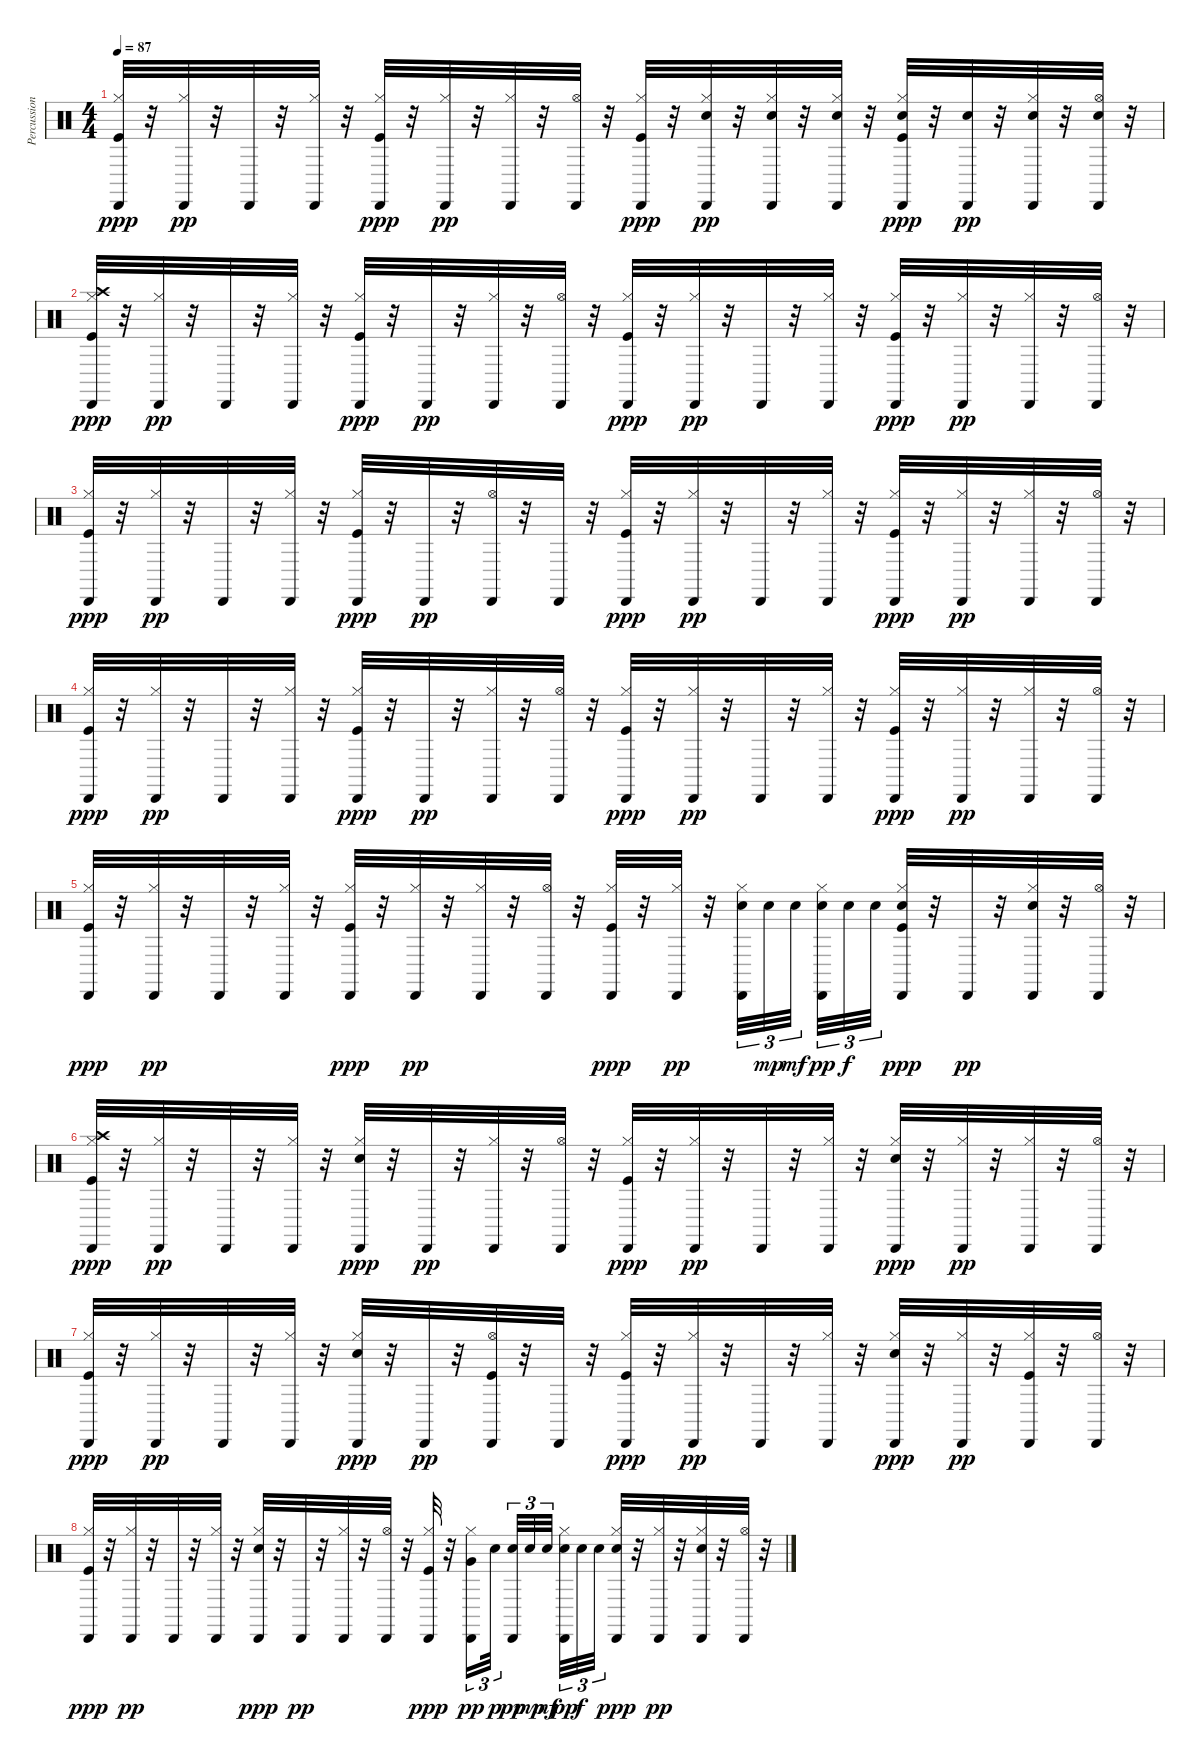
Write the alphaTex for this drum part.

\track ("Percussion" "Percussion") {instrument percussion}
\staff {score}
\articulation defaults
\ts (4 4)
\tempo 87
\clef neutral
\ks c
("Kick (hit)" "Hi-Hat (closed)" "Cabasa (hit)").32{dy ppp} r.32 ("Hi-Hat (closed)" "Cabasa (hit)").32{dy pp} r.32 "Cabasa (hit)".32 r.32 ("Hi-Hat (closed)" "Cabasa (hit)").32 r.32 ("Kick (hit)" "Hi-Hat (closed)" "Cabasa (hit)").32{dy ppp} r.32 ("Hi-Hat (closed)" "Cabasa (hit)").32{dy pp} r.32 ("Hi-Hat (closed)" "Cabasa (hit)").32 r.32 ("Hi-Hat (open)" "Cabasa (hit)").32 r.32 ("Kick (hit)" "Hi-Hat (closed)" "Cabasa (hit)").32{dy ppp} r.32 ("Snare (hit) 2" "Hi-Hat (closed)" "Cabasa (hit)").32{dy pp} r.32 ("Snare (hit) 2" "Hi-Hat (closed)" "Cabasa (hit)").32 r.32 ("Snare (hit) 2" "Hi-Hat (closed)" "Cabasa (hit)").32 r.32 ("Kick (hit)" "Snare (hit) 2" "Hi-Hat (closed)" "Cabasa (hit)").32{dy ppp} r.32 ("Snare (hit) 2" "Cabasa (hit)").32{dy pp} r.32 ("Snare (hit) 2" "Hi-Hat (closed)" "Cabasa (hit)").32 r.32 ("Snare (hit) 2" "Hi-Hat (open)" "Cabasa (hit)").32 r.32 |
("Kick (hit)" "Hi-Hat (closed)" "Crash high (hit)" "Cabasa (hit)").32{dy ppp} r.32 ("Hi-Hat (closed)" "Cabasa (hit)").32{dy pp} r.32 "Cabasa (hit)".32 r.32 ("Hi-Hat (closed)" "Cabasa (hit)").32 r.32 ("Kick (hit)" "Hi-Hat (closed)" "Cabasa (hit)").32{dy ppp} r.32 "Cabasa (hit)".32{dy pp} r.32 ("Hi-Hat (closed)" "Cabasa (hit)").32 r.32 ("Hi-Hat (open)" "Cabasa (hit)").32 r.32 ("Kick (hit)" "Hi-Hat (closed)" "Cabasa (hit)").32{dy ppp} r.32 ("Hi-Hat (closed)" "Cabasa (hit)").32{dy pp} r.32 "Cabasa (hit)".32 r.32 ("Hi-Hat (closed)" "Cabasa (hit)").32 r.32 ("Kick (hit)" "Hi-Hat (closed)" "Cabasa (hit)").32{dy ppp} r.32 ("Hi-Hat (closed)" "Cabasa (hit)").32{dy pp} r.32 ("Hi-Hat (closed)" "Cabasa (hit)").32 r.32 ("Hi-Hat (open)" "Cabasa (hit)").32 r.32 |
("Kick (hit)" "Hi-Hat (closed)" "Cabasa (hit)").32{dy ppp} r.32 ("Hi-Hat (closed)" "Cabasa (hit)").32{dy pp} r.32 "Cabasa (hit)".32 r.32 ("Hi-Hat (closed)" "Cabasa (hit)").32 r.32 ("Kick (hit)" "Hi-Hat (closed)" "Cabasa (hit)").32{dy ppp} r.32 "Cabasa (hit)".32{dy pp} r.32 ("Hi-Hat (open)" "Cabasa (hit)").32 r.32 "Cabasa (hit)".32 r.32 ("Kick (hit)" "Hi-Hat (closed)" "Cabasa (hit)").32{dy ppp} r.32 ("Hi-Hat (closed)" "Cabasa (hit)").32{dy pp} r.32 "Cabasa (hit)".32 r.32 ("Hi-Hat (closed)" "Cabasa (hit)").32 r.32 ("Kick (hit)" "Hi-Hat (closed)" "Cabasa (hit)").32{dy ppp} r.32 ("Hi-Hat (closed)" "Cabasa (hit)").32{dy pp} r.32 ("Hi-Hat (closed)" "Cabasa (hit)").32 r.32 ("Hi-Hat (open)" "Cabasa (hit)").32 r.32 |
("Kick (hit)" "Hi-Hat (closed)" "Cabasa (hit)").32{dy ppp} r.32 ("Hi-Hat (closed)" "Cabasa (hit)").32{dy pp} r.32 "Cabasa (hit)".32 r.32 ("Hi-Hat (closed)" "Cabasa (hit)").32 r.32 ("Kick (hit)" "Hi-Hat (closed)" "Cabasa (hit)").32{dy ppp} r.32 "Cabasa (hit)".32{dy pp} r.32 ("Hi-Hat (closed)" "Cabasa (hit)").32 r.32 ("Hi-Hat (open)" "Cabasa (hit)").32 r.32 ("Kick (hit)" "Hi-Hat (closed)" "Cabasa (hit)").32{dy ppp} r.32 ("Hi-Hat (closed)" "Cabasa (hit)").32{dy pp} r.32 "Cabasa (hit)".32 r.32 ("Hi-Hat (closed)" "Cabasa (hit)").32 r.32 ("Kick (hit)" "Hi-Hat (closed)" "Cabasa (hit)").32{dy ppp} r.32 ("Hi-Hat (closed)" "Cabasa (hit)").32{dy pp} r.32 ("Hi-Hat (closed)" "Cabasa (hit)").32 r.32 ("Hi-Hat (open)" "Cabasa (hit)").32 r.32 |
("Kick (hit)" "Hi-Hat (closed)" "Cabasa (hit)").32{dy ppp} r.32 ("Hi-Hat (closed)" "Cabasa (hit)").32{dy pp} r.32 "Cabasa (hit)".32 r.32 ("Hi-Hat (closed)" "Cabasa (hit)").32 r.32 ("Kick (hit)" "Hi-Hat (closed)" "Cabasa (hit)").32{dy ppp} r.32 ("Hi-Hat (closed)" "Cabasa (hit)").32{dy pp} r.32 ("Hi-Hat (closed)" "Cabasa (hit)").32 r.32 ("Hi-Hat (open)" "Cabasa (hit)").32 r.32 ("Kick (hit)" "Hi-Hat (closed)" "Cabasa (hit)").32{dy ppp} r.32 ("Hi-Hat (closed)" "Cabasa (hit)").32{dy pp} r.32 ("Snare (hit) 2" "Hi-Hat (closed)" "Cabasa (hit)").32{tu (3 2)} "Snare (hit) 2".32{tu (3 2) dy mp} "Snare (hit) 2".32{tu (3 2) dy mf beam splitsecondary} ("Snare (hit) 2" "Hi-Hat (closed)" "Cabasa (hit)").32{tu (3 2) dy pp} "Snare (hit) 2".32{tu (3 2) dy f} "Snare (hit) 2".32{tu (3 2)} ("Kick (hit)" "Snare (hit) 2" "Hi-Hat (closed)" "Cabasa (hit)").32{dy ppp} r.32 "Cabasa (hit)".32{dy pp} r.32 ("Snare (hit) 2" "Hi-Hat (closed)" "Cabasa (hit)").32 r.32 ("Hi-Hat (open)" "Cabasa (hit)").32 r.32 |
("Kick (hit)" "Hi-Hat (closed)" "Crash high (hit)" "Cabasa (hit)").32{dy ppp} r.32 ("Hi-Hat (closed)" "Cabasa (hit)").32{dy pp} r.32 "Cabasa (hit)".32 r.32 ("Hi-Hat (closed)" "Cabasa (hit)").32 r.32 ("Snare (hit) 2" "Hi-Hat (closed)" "Cabasa (hit)").32{dy ppp} r.32 "Cabasa (hit)".32{dy pp} r.32 ("Hi-Hat (closed)" "Cabasa (hit)").32 r.32 ("Hi-Hat (open)" "Cabasa (hit)").32 r.32 ("Kick (hit)" "Hi-Hat (closed)" "Cabasa (hit)").32{dy ppp} r.32 ("Hi-Hat (closed)" "Cabasa (hit)").32{dy pp} r.32 "Cabasa (hit)".32 r.32 ("Hi-Hat (closed)" "Cabasa (hit)").32 r.32 ("Snare (hit) 2" "Hi-Hat (closed)" "Cabasa (hit)").32{dy ppp} r.32 ("Hi-Hat (closed)" "Cabasa (hit)").32{dy pp} r.32 ("Hi-Hat (closed)" "Cabasa (hit)").32 r.32 ("Hi-Hat (open)" "Cabasa (hit)").32 r.32 |
("Kick (hit)" "Hi-Hat (closed)" "Cabasa (hit)").32{dy ppp} r.32 ("Hi-Hat (closed)" "Cabasa (hit)").32{dy pp} r.32 "Cabasa (hit)".32 r.32 ("Hi-Hat (closed)" "Cabasa (hit)").32 r.32 ("Snare (hit) 2" "Hi-Hat (closed)" "Cabasa (hit)").32{dy ppp} r.32 "Cabasa (hit)".32{dy pp} r.32 ("Kick (hit)" "Hi-Hat (open)" "Cabasa (hit)").32 r.32 "Cabasa (hit)".32 r.32 ("Kick (hit)" "Hi-Hat (closed)" "Cabasa (hit)").32{dy ppp} r.32 ("Hi-Hat (closed)" "Cabasa (hit)").32{dy pp} r.32 "Cabasa (hit)".32 r.32 ("Hi-Hat (closed)" "Cabasa (hit)").32 r.32 ("Snare (hit) 2" "Hi-Hat (closed)" "Cabasa (hit)").32{dy ppp} r.32 ("Hi-Hat (closed)" "Cabasa (hit)").32{dy pp} r.32 ("Kick (hit)" "Hi-Hat (closed)" "Cabasa (hit)").32 r.32 ("Hi-Hat (open)" "Cabasa (hit)").32 r.32 |
("Kick (hit)" "Hi-Hat (closed)" "Cabasa (hit)").32{dy ppp} r.32 ("Hi-Hat (closed)" "Cabasa (hit)").32{dy pp} r.32 "Cabasa (hit)".32 r.32 ("Hi-Hat (closed)" "Cabasa (hit)").32 r.32 ("Snare (hit) 2" "Hi-Hat (closed)" "Cabasa (hit)").32{dy ppp} r.32 "Cabasa (hit)".32{dy pp} r.32 ("Hi-Hat (closed)" "Cabasa (hit)").32 r.32 ("Hi-Hat (open)" "Cabasa (hit)").32 r.32 ("Kick (hit)" "Hi-Hat (closed)" "Cabasa (hit)").32{dy ppp} r.32 ("Hi-Hat (closed)" "Very Low Tom (hit)" "Cabasa (hit)").16{tu (3 2) dy pp} "Snare (hit) 2".32{tu (3 2) dy p beam splitsecondary} ("Snare (hit) 2" "Cabasa (hit)").32{tu (3 2) dy pp} "Snare (hit) 2".32{tu (3 2) dy mp} "Snare (hit) 2".32{tu (3 2) dy mf beam splitsecondary} ("Snare (hit) 2" "Hi-Hat (closed)" "Cabasa (hit)").32{tu (3 2) dy pp} "Snare (hit) 2".32{tu (3 2) dy f} "Snare (hit) 2".32{tu (3 2)} ("Snare (hit) 2" "Hi-Hat (closed)" "Cabasa (hit)").32{dy ppp} r.32 ("Hi-Hat (closed)" "Cabasa (hit)").32{dy pp} r.32 ("Snare (hit) 2" "Hi-Hat (closed)" "Cabasa (hit)").32 r.32 ("Hi-Hat (open)" "Cabasa (hit)").32 r.32
